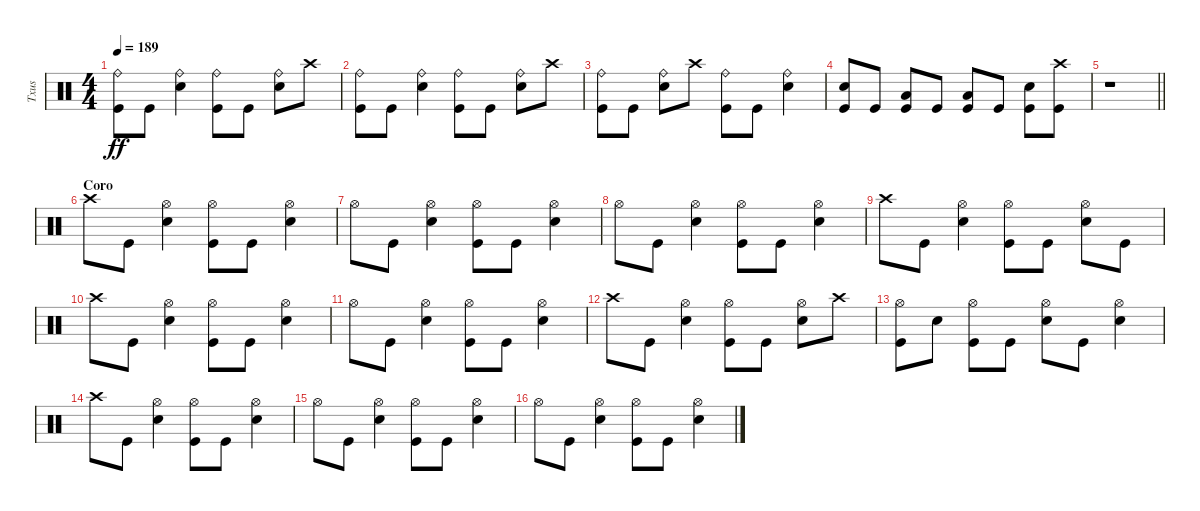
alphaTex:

\track ("Txus" "Txus") {instrument percussion}
\staff {score}
\articulation defaults
\ts (4 4)
\tempo 189
\clef neutral
\ks c
("Kick (hit)" "Ride (bell)").8{dy ff} "Kick (hit)".8 ("Ride (bell)" "Snare (hit) 2").4 ("Ride (bell)" "Kick (hit)").8 "Kick (hit)".8 ("Ride (bell)" "Snare (hit) 2").8 "Crash high (hit)".8 |
("Kick (hit)" "Ride (bell)").8 "Kick (hit)".8 ("Ride (bell)" "Snare (hit) 2").4 ("Ride (bell)" "Kick (hit)").8 "Kick (hit)".8 ("Ride (bell)" "Snare (hit) 2").8 "Crash high (hit)".8 |
("Kick (hit)" "Ride (bell)").8 "Kick (hit)".8 ("Ride (bell)" "Snare (hit) 2").8 "Crash high (hit)".8 ("Ride (bell)" "Kick (hit)").8 "Kick (hit)".8 ("Ride (bell)" "Snare (hit) 2").4 |
("Snare (hit) 2" "Kick (hit)").8 "Kick (hit)".8 ("Kick (hit)" "Low Tom (hit)").8 "Kick (hit)".8 ("Kick (hit)" "Low Tom (hit)").8 "Kick (hit)".8 ("Kick (hit)" "Snare (hit) 2").8 ("Kick (hit)" "Crash high (hit)").8 |
\barLineRight lightlight
r.1 |
\section ("" "Coro")
"Crash high (hit)".8 "Kick (hit)".8 ("Snare (hit) 2" "Hi-Hat (open)").4 ("Kick (hit)" "Hi-Hat (open)").8 "Kick (hit)".8 ("Snare (hit) 2" "Hi-Hat (open)").4 |
"Hi-Hat (open)".8 "Kick (hit)".8 ("Snare (hit) 2" "Hi-Hat (open)").4 ("Kick (hit)" "Hi-Hat (open)").8 "Kick (hit)".8 ("Snare (hit) 2" "Hi-Hat (open)").4 |
"Hi-Hat (open)".8 "Kick (hit)".8 ("Snare (hit) 2" "Hi-Hat (open)").4 ("Kick (hit)" "Hi-Hat (open)").8 "Kick (hit)".8 ("Snare (hit) 2" "Hi-Hat (open)").4 |
"Crash high (hit)".8 "Kick (hit)".8 ("Snare (hit) 2" "Hi-Hat (open)").4 ("Kick (hit)" "Hi-Hat (open)").8 "Kick (hit)".8 ("Snare (hit) 2" "Hi-Hat (open)").8 "Kick (hit)".8 |
"Crash high (hit)".8 "Kick (hit)".8 ("Snare (hit) 2" "Hi-Hat (open)").4 ("Kick (hit)" "Hi-Hat (open)").8 "Kick (hit)".8 ("Snare (hit) 2" "Hi-Hat (open)").4 |
"Hi-Hat (open)".8 "Kick (hit)".8 ("Snare (hit) 2" "Hi-Hat (open)").4 ("Kick (hit)" "Hi-Hat (open)").8 "Kick (hit)".8 ("Snare (hit) 2" "Hi-Hat (open)").4 |
"Crash high (hit)".8 "Kick (hit)".8 ("Snare (hit) 2" "Hi-Hat (open)").4 ("Kick (hit)" "Hi-Hat (open)").8 "Kick (hit)".8 ("Snare (hit) 2" "Hi-Hat (open)").8 "Crash high (hit)".8 |
("Kick (hit)" "Hi-Hat (open)").8 "Snare (hit) 2".8 ("Kick (hit)" "Hi-Hat (open)").8 "Kick (hit)".8 ("Snare (hit) 2" "Hi-Hat (open)").8 "Kick (hit)".8 ("Snare (hit) 2" "Hi-Hat (open)").4 |
"Crash high (hit)".8 "Kick (hit)".8 ("Snare (hit) 2" "Hi-Hat (open)").4 ("Kick (hit)" "Hi-Hat (open)").8 "Kick (hit)".8 ("Snare (hit) 2" "Hi-Hat (open)").4 |
"Hi-Hat (open)".8 "Kick (hit)".8 ("Snare (hit) 2" "Hi-Hat (open)").4 ("Kick (hit)" "Hi-Hat (open)").8 "Kick (hit)".8 ("Snare (hit) 2" "Hi-Hat (open)").4 |
"Hi-Hat (open)".8 "Kick (hit)".8 ("Snare (hit) 2" "Hi-Hat (open)").4 ("Kick (hit)" "Hi-Hat (open)").8 "Kick (hit)".8 ("Snare (hit) 2" "Hi-Hat (open)").4
